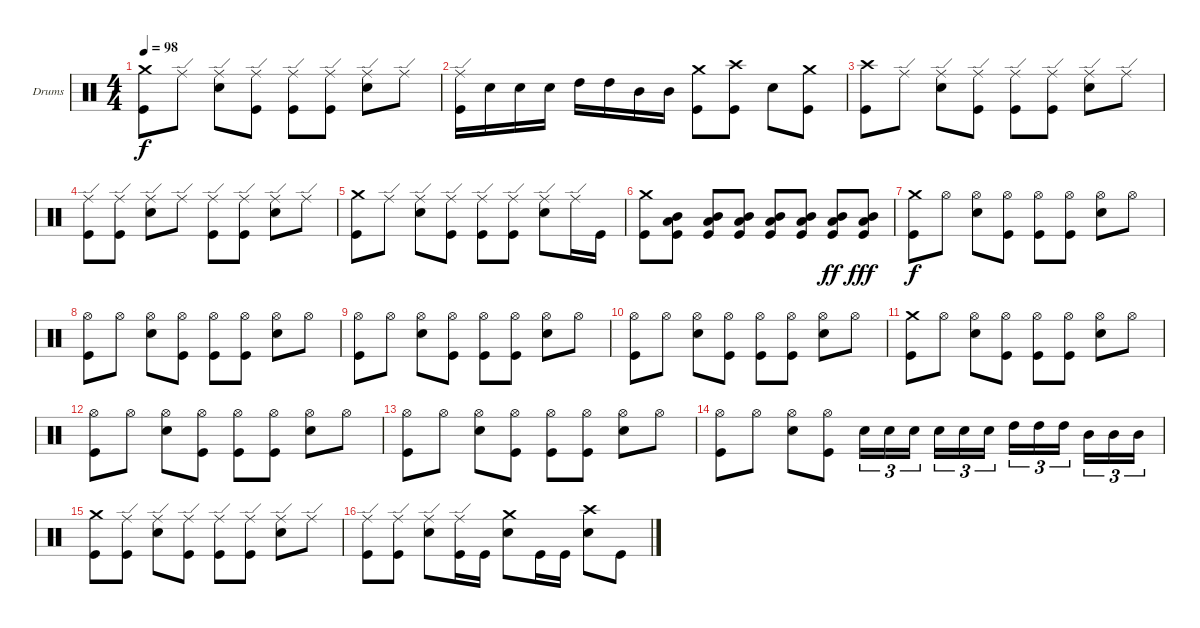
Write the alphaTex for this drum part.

\bracketExtendMode groupsimilarinstruments
\firstSystemTrackNameOrientation horizontal
\otherSystemsTrackNameOrientation horizontal
\track ("Drumkit" "Drums") {instrument percussion}
\staff {score}
\articulation defaults
\ts (4 4)
\tempo 98
\clef neutral
\scale
0.333333
\ks c
("Crash medium (hit)" "Kick (hit)").8{dy f} "Ride (edge)".8 ("Snare (hit) 2" "Ride (edge)").8 ("Kick (hit)" "Ride (edge)").8 ("Kick (hit)" "Ride (edge)").8 ("Kick (hit)" "Ride (edge)").8 ("Snare (hit) 2" "Ride (edge)").8 "Ride (edge)".8 |
\scale
0.333333 ("Ride (edge)" "Kick (hit)").16 "Snare (hit) 2".16 "Snare (hit) 2".16 "Snare (hit) 2".16 "High Tom (hit)".16 "High Tom (hit)".16 "Mid Tom (hit)".16 "Mid Tom (hit)".16 ("Kick (hit)" "Crash medium (hit)").8 ("Kick (hit)" "Crash high (hit)").8 "Snare (hit) 2".8 ("Kick (hit)" "Crash medium (hit)").8 |
\scale
0.333333 ("Kick (hit)" "Crash high (hit)").8 "Ride (edge)".8 ("Ride (edge)" "Snare (hit) 2").8 ("Kick (hit)" "Ride (edge)").8 ("Kick (hit)" "Ride (edge)").8 ("Kick (hit)" "Ride (edge)").8 ("Snare (hit) 2" "Ride (edge)").8 "Ride (edge)".8 |
\scale
0.333333 ("Kick (hit)" "Ride (edge)").8 ("Kick (hit)" "Ride (edge)").8 ("Snare (hit) 2" "Ride (edge)").8 "Ride (edge)".8 ("Kick (hit)" "Ride (edge)").8 ("Kick (hit)" "Ride (edge)").8 ("Snare (hit) 2" "Ride (edge)").8 "Ride (edge)".8 |
\scale
0.333333 ("Kick (hit)" "Crash medium (hit)").8 "Ride (edge)".8 ("Snare (hit) 2" "Ride (edge)").8 ("Kick (hit)" "Ride (edge)").8 ("Kick (hit)" "Ride (edge)").8 ("Kick (hit)" "Ride (edge)").8 ("Snare (hit) 2" "Ride (edge)").8 "Ride (edge)".16 "Kick (hit)".16 |
\scale
0.333333 ("Kick (hit)" "Crash medium (hit)").8 ("Low Tom (hit)" "Kick (hit)" "Mid Tom (hit)").8 ("Low Tom (hit)" "Kick (hit)" "Mid Tom (hit)").8 ("Low Tom (hit)" "Kick (hit)" "Mid Tom (hit)").8 ("Low Tom (hit)" "Kick (hit)" "Mid Tom (hit)").8 ("Low Tom (hit)" "Kick (hit)" "Mid Tom (hit)").8 ("Low Tom (hit)" "Kick (hit)" "Mid Tom (hit)").8{dy ff} ("Low Tom (hit)" "Kick (hit)" "Mid Tom (hit)").8{dy fff} |
\scale
0.333333 ("Kick (hit)" "Crash medium (hit)").8{dy f} "Hi-Hat (open)".8 ("Snare (hit) 2" "Hi-Hat (open)").8 ("Kick (hit)" "Hi-Hat (open)").8 ("Kick (hit)" "Hi-Hat (open)").8 ("Kick (hit)" "Hi-Hat (open)").8 ("Snare (hit) 2" "Hi-Hat (open)").8 "Hi-Hat (open)".8 |
\scale
0.333333 ("Kick (hit)" "Hi-Hat (open)").8 "Hi-Hat (open)".8 ("Snare (hit) 2" "Hi-Hat (open)").8 ("Kick (hit)" "Hi-Hat (open)").8 ("Kick (hit)" "Hi-Hat (open)").8 ("Kick (hit)" "Hi-Hat (open)").8 ("Snare (hit) 2" "Hi-Hat (open)").8 "Hi-Hat (open)".8 |
\scale
0.333333 ("Kick (hit)" "Hi-Hat (open)").8 "Hi-Hat (open)".8 ("Snare (hit) 2" "Hi-Hat (open)").8 ("Kick (hit)" "Hi-Hat (open)").8 ("Kick (hit)" "Hi-Hat (open)").8 ("Kick (hit)" "Hi-Hat (open)").8 ("Snare (hit) 2" "Hi-Hat (open)").8 "Hi-Hat (open)".8 |
\scale
0.333333 ("Kick (hit)" "Hi-Hat (open)").8 "Hi-Hat (open)".8 ("Snare (hit) 2" "Hi-Hat (open)").8 ("Kick (hit)" "Hi-Hat (open)").8 ("Kick (hit)" "Hi-Hat (open)").8 ("Kick (hit)" "Hi-Hat (open)").8 ("Snare (hit) 2" "Hi-Hat (open)").8 "Hi-Hat (open)".8 |
\scale
0.333333 ("Kick (hit)" "Crash medium (hit)").8 "Hi-Hat (open)".8 ("Snare (hit) 2" "Hi-Hat (open)").8 ("Kick (hit)" "Hi-Hat (open)").8 ("Kick (hit)" "Hi-Hat (open)").8 ("Kick (hit)" "Hi-Hat (open)").8 ("Snare (hit) 2" "Hi-Hat (open)").8 "Hi-Hat (open)".8 |
\scale
0.333333 ("Kick (hit)" "Hi-Hat (open)").8 "Hi-Hat (open)".8 ("Snare (hit) 2" "Hi-Hat (open)").8 ("Kick (hit)" "Hi-Hat (open)").8 ("Kick (hit)" "Hi-Hat (open)").8 ("Kick (hit)" "Hi-Hat (open)").8 ("Snare (hit) 2" "Hi-Hat (open)").8 "Hi-Hat (open)".8 |
\scale
0.333333 ("Kick (hit)" "Hi-Hat (open)").8 "Hi-Hat (open)".8 ("Snare (hit) 2" "Hi-Hat (open)").8 ("Kick (hit)" "Hi-Hat (open)").8 ("Kick (hit)" "Hi-Hat (open)").8 ("Kick (hit)" "Hi-Hat (open)").8 ("Snare (hit) 2" "Hi-Hat (open)").8 "Hi-Hat (open)".8 |
\scale
0.333333 ("Kick (hit)" "Hi-Hat (open)").8 "Hi-Hat (open)".8 ("Snare (hit) 2" "Hi-Hat (open)").8 ("Kick (hit)" "Hi-Hat (open)").8 "Snare (hit) 2".16{tu (3 2)} "Snare (hit) 2".16{tu (3 2)} "Snare (hit) 2".16{tu (3 2)} "Snare (hit) 2".16{tu (3 2)} "Snare (hit) 2".16{tu (3 2)} "Snare (hit) 2".16{tu (3 2)} "High Tom (hit)".16{tu (3 2)} "High Tom (hit)".16{tu (3 2)} "High Tom (hit)".16{tu (3 2)} "Mid Tom (hit)".16{tu (3 2)} "Mid Tom (hit)".16{tu (3 2)} "Mid Tom (hit)".16{tu (3 2)} |
\scale
0.333333 ("Kick (hit)" "Crash medium (hit)").8 ("Kick (hit)" "Ride (edge)").8 ("Snare (hit) 2" "Ride (edge)").8 ("Kick (hit)" "Ride (edge)").8 ("Kick (hit)" "Ride (edge)").8 ("Kick (hit)" "Ride (edge)").8 ("Snare (hit) 2" "Ride (edge)").8 "Ride (edge)".8 |
\scale
0.333333 ("Kick (hit)" "Ride (edge)").8 ("Kick (hit)" "Ride (edge)").8 ("Snare (hit) 2" "Ride (edge)").8 ("Ride (edge)" "Kick (hit)").16 "Kick (hit)".16 ("Crash medium (hit)" "Snare (hit) 2").8 "Kick (hit)".16 "Kick (hit)".16 ("Crash high (hit)" "Snare (hit) 2").8 "Kick (hit)".8
